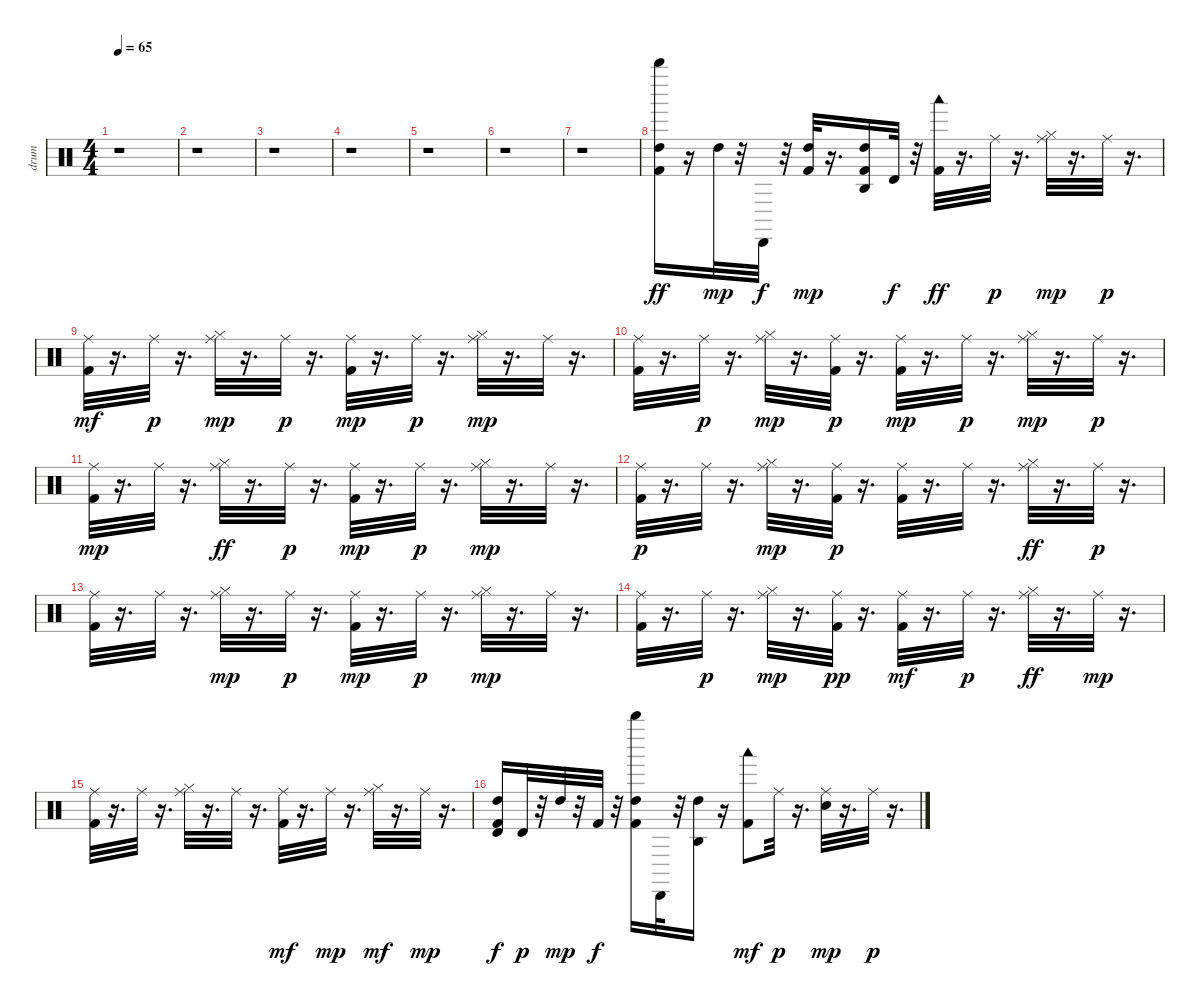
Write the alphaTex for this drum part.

\track ("drum" "drum") {instrument percussion}
\staff {score}
\articulation defaults
\ts (4 4)
\tempo 65
\clef neutral
\ks c
r.1{dy mp} |
r.1 |
r.1 |
r.1 |
r.1 |
r.1 |
r.1 |
("Kick (hit) 2" "High Tom (hit)" "Whistle high (hit)").16{dy ff} r.16 "High Tom (hit)".32{dy mp} r.32 "Cabasa (hit)".32{dy f} r.32 ("Kick (hit) 2" "High Tom (hit)").32{dy mp} r.16{d} ("Kick (hit) 2" "High Tom (hit)" "Agogo high (hit)").16 "Timbale high (hit)".32{dy f} r.32 ("Kick (hit) 2" "Woodblock low (hit)").32{dy ff} r.16{d} "Ride (middle)".32{dy p} r.16{d} ("Hi-Hat (closed)" "Ride (middle)").32{dy mp} r.16{d} "Ride (middle)".32{dy p} r.16{d} |
("Ride (middle)" "Kick (hit) 2").32{dy mf} r.16{d} "Ride (middle)".32{dy p} r.16{d} ("Hi-Hat (closed)" "Ride (middle)").32{dy mp} r.16{d} "Ride (middle)".32{dy p} r.16{d} ("Kick (hit) 2" "Ride (middle)").32{dy mp} r.16{d} "Ride (middle)".32{dy p} r.16{d} ("Hi-Hat (closed)" "Ride (middle)").32{dy mp} r.16{d} "Ride (middle)".32 r.16{d} |
("Kick (hit) 2" "Ride (middle)").32 r.16{d} "Ride (middle)".32{dy p} r.16{d} ("Hi-Hat (closed)" "Ride (middle)").32{dy mp} r.16{d} ("Kick (hit) 2" "Ride (middle)").32{dy p} r.16{d} ("Kick (hit) 2" "Ride (middle)").32{dy mp} r.16{d} "Ride (middle)".32{dy p} r.16{d} ("Hi-Hat (closed)" "Ride (middle)").32{dy mp} r.16{d} "Ride (middle)".32{dy p} r.16{d} |
("Ride (middle)" "Kick (hit) 2").32{dy mp} r.16{d} "Ride (middle)".32 r.16{d} ("Ride (middle)" "Hi-Hat (closed)").32{dy ff} r.16{d} "Ride (middle)".32{dy p} r.16{d} ("Kick (hit) 2" "Ride (middle)").32{dy mp} r.16{d} "Ride (middle)".32{dy p} r.16{d} ("Hi-Hat (closed)" "Ride (middle)").32{dy mp} r.16{d} "Ride (middle)".32 r.16{d} |
("Kick (hit) 2" "Ride (middle)").32{dy p} r.16{d} "Ride (middle)".32 r.16{d} ("Hi-Hat (closed)" "Ride (middle)").32{dy mp} r.16{d} ("Kick (hit) 2" "Ride (middle)").32{dy p} r.16{d} ("Kick (hit) 2" "Ride (middle)").32 r.16{d} "Ride (middle)".32 r.16{d} ("Ride (middle)" "Hi-Hat (closed)").32{dy ff} r.16{d} "Ride (middle)".32{dy p} r.16{d} |
("Kick (hit) 2" "Ride (middle)").32 r.16{d} "Ride (middle)".32 r.16{d} ("Hi-Hat (closed)" "Ride (middle)").32{dy mp} r.16{d} "Ride (middle)".32{dy p} r.16{d} ("Ride (middle)" "Kick (hit) 2").32{dy mp} r.16{d} "Ride (middle)".32{dy p} r.16{d} ("Hi-Hat (closed)" "Ride (middle)").32{dy mp} r.16{d} "Ride (middle)".32 r.16{d} |
("Kick (hit) 2" "Ride (middle)").32 r.16{d} "Ride (middle)".32{dy p} r.16{d} ("Hi-Hat (closed)" "Ride (middle)").32{dy mp} r.16{d} ("Kick (hit) 2" "Ride (middle)").32{dy pp} r.16{d} ("Ride (middle)" "Kick (hit) 2").32{dy mf} r.16{d} "Ride (middle)".32{dy p} r.16{d} ("Ride (middle)" "Hi-Hat (closed)").32{dy ff} r.16{d} "Ride (middle)".32{dy mp} r.16{d} |
("Ride (middle)" "Kick (hit) 2").32 r.16{d} "Ride (middle)".32 r.16{d} ("Hi-Hat (closed)" "Ride (middle)").32 r.16{d} "Ride (middle)".32 r.16{d} ("Ride (middle)" "Kick (hit) 2").32{dy mf} r.16{d} "Ride (middle)".32{dy mp} r.16{d} ("Hi-Hat (closed)" "Ride (middle)").32{dy mf} r.16{d} "Ride (middle)".32{dy mp} r.16{d} |
("Kick (hit) 2" "High Tom (hit)" "Timbale high (hit)").16{dy f} "Timbale high (hit)".32{dy p} r.32 "High Tom (hit)".32{dy mp} r.32 "Kick (hit) 2".32{dy f} r.32 ("High Tom (hit)" "Kick (hit) 2" "Whistle high (hit)").16 "Cabasa (hit)".32 r.32 ("High Tom (hit)" "Agogo high (hit)").16 r.16 ("Kick (hit) 2" "Woodblock low (hit)").8{dy mf} "Ride (middle)".32{dy p} r.16{d} ("Snare (hit) 2" "Ride (middle)").32{dy mp} r.16{d} "Ride (middle)".32{dy p} r.16{d}
